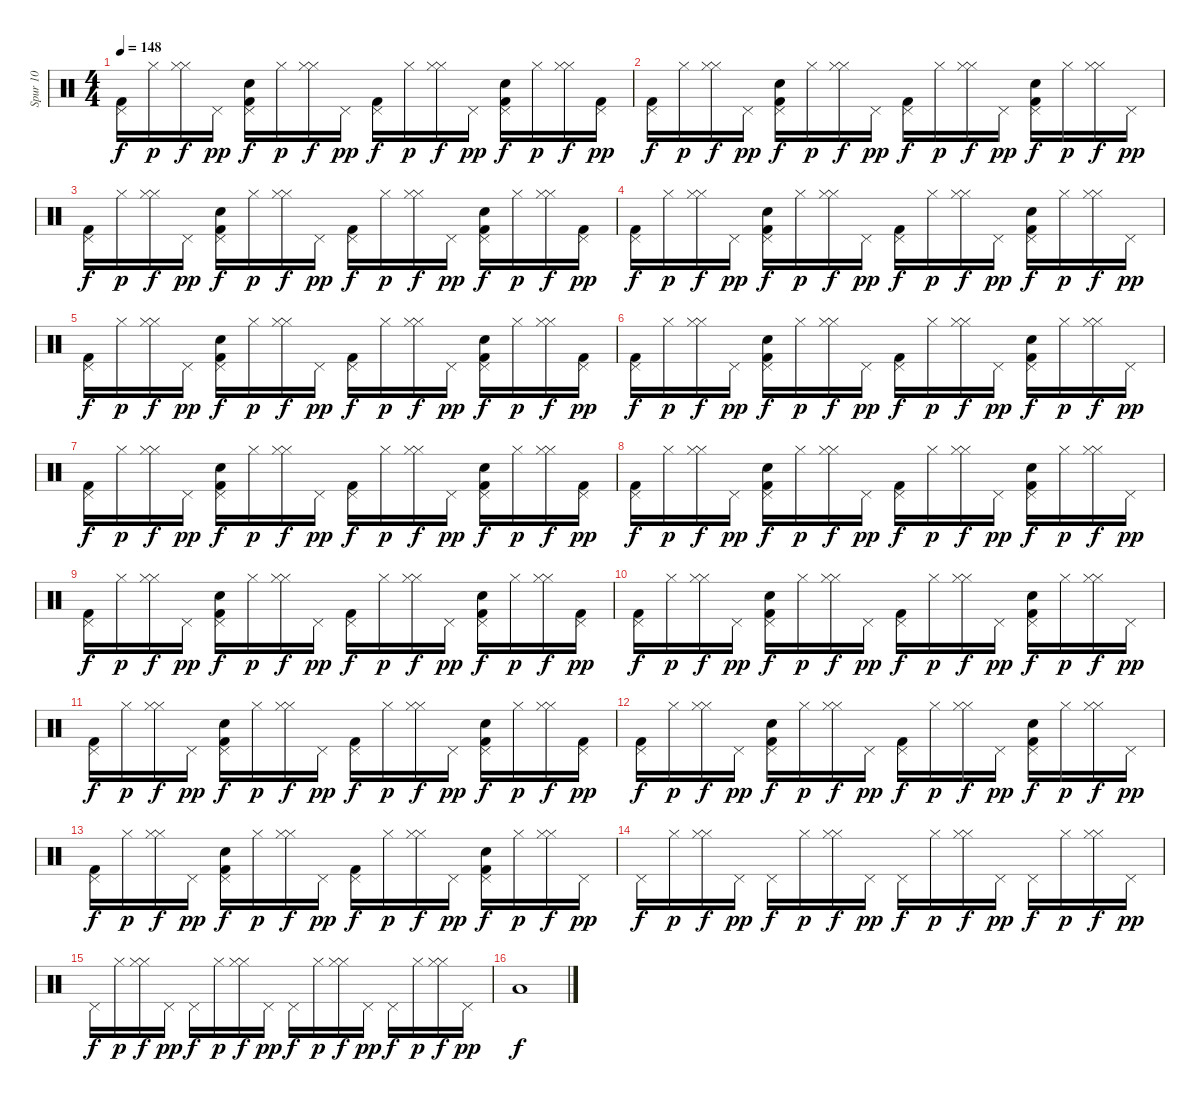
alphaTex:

\track ("Spur 10" "Spur 10") {instrument percussion}
\staff {score}
\articulation defaults
\ts (4 4)
\tempo 148
\clef neutral
\ks c
("Pedal Hi-Hat (hit)" "Kick (hit) 2").16{dy f} "Hi-Hat (closed)".16{dy p} ("Hi-Hat (closed)" "Hi-Hat (closed)").16{dy f} "Pedal Hi-Hat (hit)".16{dy pp} ("Pedal Hi-Hat (hit)" "Kick (hit) 2" "Snare (hit) 2").16{dy f} "Hi-Hat (closed)".16{dy p} ("Hi-Hat (closed)" "Hi-Hat (closed)").16{dy f} "Pedal Hi-Hat (hit)".16{dy pp} ("Pedal Hi-Hat (hit)" "Kick (hit) 2").16{dy f} "Hi-Hat (closed)".16{dy p} ("Hi-Hat (closed)" "Hi-Hat (closed)").16{dy f} "Pedal Hi-Hat (hit)".16{dy pp} ("Pedal Hi-Hat (hit)" "Snare (hit) 2" "Kick (hit) 2").16{dy f} "Hi-Hat (closed)".16{dy p} ("Hi-Hat (closed)" "Hi-Hat (closed)").16{dy f} ("Kick (hit) 2" "Pedal Hi-Hat (hit)").16{dy pp} |
("Pedal Hi-Hat (hit)" "Kick (hit) 2").16{dy f} "Hi-Hat (closed)".16{dy p} ("Hi-Hat (closed)" "Hi-Hat (closed)").16{dy f} "Pedal Hi-Hat (hit)".16{dy pp} ("Pedal Hi-Hat (hit)" "Snare (hit) 2" "Kick (hit) 2").16{dy f} "Hi-Hat (closed)".16{dy p} ("Hi-Hat (closed)" "Hi-Hat (closed)").16{dy f} "Pedal Hi-Hat (hit)".16{dy pp} ("Pedal Hi-Hat (hit)" "Kick (hit) 2").16{dy f} "Hi-Hat (closed)".16{dy p} ("Hi-Hat (closed)" "Hi-Hat (closed)").16{dy f} "Pedal Hi-Hat (hit)".16{dy pp} ("Pedal Hi-Hat (hit)" "Snare (hit) 2" "Kick (hit) 2").16{dy f} "Hi-Hat (closed)".16{dy p} ("Hi-Hat (closed)" "Hi-Hat (closed)").16{dy f} "Pedal Hi-Hat (hit)".16{dy pp} |
("Pedal Hi-Hat (hit)" "Kick (hit) 2").16{dy f} "Hi-Hat (closed)".16{dy p} ("Hi-Hat (closed)" "Hi-Hat (closed)").16{dy f} "Pedal Hi-Hat (hit)".16{dy pp} ("Pedal Hi-Hat (hit)" "Kick (hit) 2" "Snare (hit) 2").16{dy f} "Hi-Hat (closed)".16{dy p} ("Hi-Hat (closed)" "Hi-Hat (closed)").16{dy f} "Pedal Hi-Hat (hit)".16{dy pp} ("Pedal Hi-Hat (hit)" "Kick (hit) 2").16{dy f} "Hi-Hat (closed)".16{dy p} ("Hi-Hat (closed)" "Hi-Hat (closed)").16{dy f} "Pedal Hi-Hat (hit)".16{dy pp} ("Pedal Hi-Hat (hit)" "Kick (hit) 2" "Snare (hit) 2").16{dy f} "Hi-Hat (closed)".16{dy p} ("Hi-Hat (closed)" "Hi-Hat (closed)").16{dy f} ("Kick (hit) 2" "Pedal Hi-Hat (hit)").16{dy pp} |
("Pedal Hi-Hat (hit)" "Kick (hit) 2").16{dy f} "Hi-Hat (closed)".16{dy p} ("Hi-Hat (closed)" "Hi-Hat (closed)").16{dy f} "Pedal Hi-Hat (hit)".16{dy pp} ("Pedal Hi-Hat (hit)" "Kick (hit) 2" "Snare (hit) 2").16{dy f} "Hi-Hat (closed)".16{dy p} ("Hi-Hat (closed)" "Hi-Hat (closed)").16{dy f} "Pedal Hi-Hat (hit)".16{dy pp} ("Pedal Hi-Hat (hit)" "Kick (hit) 2").16{dy f} "Hi-Hat (closed)".16{dy p} ("Hi-Hat (closed)" "Hi-Hat (closed)").16{dy f} "Pedal Hi-Hat (hit)".16{dy pp} ("Pedal Hi-Hat (hit)" "Snare (hit) 2" "Kick (hit) 2").16{dy f} "Hi-Hat (closed)".16{dy p} ("Hi-Hat (closed)" "Hi-Hat (closed)").16{dy f} "Pedal Hi-Hat (hit)".16{dy pp} |
("Pedal Hi-Hat (hit)" "Kick (hit) 2").16{dy f} "Hi-Hat (closed)".16{dy p} ("Hi-Hat (closed)" "Hi-Hat (closed)").16{dy f} "Pedal Hi-Hat (hit)".16{dy pp} ("Pedal Hi-Hat (hit)" "Kick (hit) 2" "Snare (hit) 2").16{dy f} "Hi-Hat (closed)".16{dy p} ("Hi-Hat (closed)" "Hi-Hat (closed)").16{dy f} "Pedal Hi-Hat (hit)".16{dy pp} ("Pedal Hi-Hat (hit)" "Kick (hit) 2").16{dy f} "Hi-Hat (closed)".16{dy p} ("Hi-Hat (closed)" "Hi-Hat (closed)").16{dy f} "Pedal Hi-Hat (hit)".16{dy pp} ("Pedal Hi-Hat (hit)" "Kick (hit) 2" "Snare (hit) 2").16{dy f} "Hi-Hat (closed)".16{dy p} ("Hi-Hat (closed)" "Hi-Hat (closed)").16{dy f} ("Kick (hit) 2" "Pedal Hi-Hat (hit)").16{dy pp} |
("Pedal Hi-Hat (hit)" "Kick (hit) 2").16{dy f} "Hi-Hat (closed)".16{dy p} ("Hi-Hat (closed)" "Hi-Hat (closed)").16{dy f} "Pedal Hi-Hat (hit)".16{dy pp} ("Pedal Hi-Hat (hit)" "Kick (hit) 2" "Snare (hit) 2").16{dy f} "Hi-Hat (closed)".16{dy p} ("Hi-Hat (closed)" "Hi-Hat (closed)").16{dy f} "Pedal Hi-Hat (hit)".16{dy pp} ("Pedal Hi-Hat (hit)" "Kick (hit) 2").16{dy f} "Hi-Hat (closed)".16{dy p} ("Hi-Hat (closed)" "Hi-Hat (closed)").16{dy f} "Pedal Hi-Hat (hit)".16{dy pp} ("Pedal Hi-Hat (hit)" "Snare (hit) 2" "Kick (hit) 2").16{dy f} "Hi-Hat (closed)".16{dy p} ("Hi-Hat (closed)" "Hi-Hat (closed)").16{dy f} "Pedal Hi-Hat (hit)".16{dy pp} |
("Pedal Hi-Hat (hit)" "Kick (hit) 2").16{dy f} "Hi-Hat (closed)".16{dy p} ("Hi-Hat (closed)" "Hi-Hat (closed)").16{dy f} "Pedal Hi-Hat (hit)".16{dy pp} ("Pedal Hi-Hat (hit)" "Snare (hit) 2" "Kick (hit) 2").16{dy f} "Hi-Hat (closed)".16{dy p} ("Hi-Hat (closed)" "Hi-Hat (closed)").16{dy f} "Pedal Hi-Hat (hit)".16{dy pp} ("Pedal Hi-Hat (hit)" "Kick (hit) 2").16{dy f} "Hi-Hat (closed)".16{dy p} ("Hi-Hat (closed)" "Hi-Hat (closed)").16{dy f} "Pedal Hi-Hat (hit)".16{dy pp} ("Pedal Hi-Hat (hit)" "Kick (hit) 2" "Snare (hit) 2").16{dy f} "Hi-Hat (closed)".16{dy p} ("Hi-Hat (closed)" "Hi-Hat (closed)").16{dy f} ("Kick (hit) 2" "Pedal Hi-Hat (hit)").16{dy pp} |
("Pedal Hi-Hat (hit)" "Kick (hit) 2").16{dy f} "Hi-Hat (closed)".16{dy p} ("Hi-Hat (closed)" "Hi-Hat (closed)").16{dy f} "Pedal Hi-Hat (hit)".16{dy pp} ("Pedal Hi-Hat (hit)" "Snare (hit) 2" "Kick (hit) 2").16{dy f} "Hi-Hat (closed)".16{dy p} ("Hi-Hat (closed)" "Hi-Hat (closed)").16{dy f} "Pedal Hi-Hat (hit)".16{dy pp} ("Pedal Hi-Hat (hit)" "Kick (hit) 2").16{dy f} "Hi-Hat (closed)".16{dy p} ("Hi-Hat (closed)" "Hi-Hat (closed)").16{dy f} "Pedal Hi-Hat (hit)".16{dy pp} ("Pedal Hi-Hat (hit)" "Kick (hit) 2" "Snare (hit) 2").16{dy f} "Hi-Hat (closed)".16{dy p} ("Hi-Hat (closed)" "Hi-Hat (closed)").16{dy f} "Pedal Hi-Hat (hit)".16{dy pp} |
("Pedal Hi-Hat (hit)" "Kick (hit) 2").16{dy f} "Hi-Hat (closed)".16{dy p} ("Hi-Hat (closed)" "Hi-Hat (closed)").16{dy f} "Pedal Hi-Hat (hit)".16{dy pp} ("Pedal Hi-Hat (hit)" "Snare (hit) 2" "Kick (hit) 2").16{dy f} "Hi-Hat (closed)".16{dy p} ("Hi-Hat (closed)" "Hi-Hat (closed)").16{dy f} "Pedal Hi-Hat (hit)".16{dy pp} ("Pedal Hi-Hat (hit)" "Kick (hit) 2").16{dy f} "Hi-Hat (closed)".16{dy p} ("Hi-Hat (closed)" "Hi-Hat (closed)").16{dy f} "Pedal Hi-Hat (hit)".16{dy pp} ("Pedal Hi-Hat (hit)" "Kick (hit) 2" "Snare (hit) 2").16{dy f} "Hi-Hat (closed)".16{dy p} ("Hi-Hat (closed)" "Hi-Hat (closed)").16{dy f} ("Kick (hit) 2" "Pedal Hi-Hat (hit)").16{dy pp} |
("Pedal Hi-Hat (hit)" "Kick (hit) 2").16{dy f} "Hi-Hat (closed)".16{dy p} ("Hi-Hat (closed)" "Hi-Hat (closed)").16{dy f} "Pedal Hi-Hat (hit)".16{dy pp} ("Pedal Hi-Hat (hit)" "Snare (hit) 2" "Kick (hit) 2").16{dy f} "Hi-Hat (closed)".16{dy p} ("Hi-Hat (closed)" "Hi-Hat (closed)").16{dy f} "Pedal Hi-Hat (hit)".16{dy pp} ("Pedal Hi-Hat (hit)" "Kick (hit) 2").16{dy f} "Hi-Hat (closed)".16{dy p} ("Hi-Hat (closed)" "Hi-Hat (closed)").16{dy f} "Pedal Hi-Hat (hit)".16{dy pp} ("Pedal Hi-Hat (hit)" "Snare (hit) 2" "Kick (hit) 2").16{dy f} "Hi-Hat (closed)".16{dy p} ("Hi-Hat (closed)" "Hi-Hat (closed)").16{dy f} "Pedal Hi-Hat (hit)".16{dy pp} |
("Pedal Hi-Hat (hit)" "Kick (hit) 2").16{dy f} "Hi-Hat (closed)".16{dy p} ("Hi-Hat (closed)" "Hi-Hat (closed)").16{dy f} "Pedal Hi-Hat (hit)".16{dy pp} ("Pedal Hi-Hat (hit)" "Snare (hit) 2" "Kick (hit) 2").16{dy f} "Hi-Hat (closed)".16{dy p} ("Hi-Hat (closed)" "Hi-Hat (closed)").16{dy f} "Pedal Hi-Hat (hit)".16{dy pp} ("Pedal Hi-Hat (hit)" "Kick (hit) 2").16{dy f} "Hi-Hat (closed)".16{dy p} ("Hi-Hat (closed)" "Hi-Hat (closed)").16{dy f} "Pedal Hi-Hat (hit)".16{dy pp} ("Pedal Hi-Hat (hit)" "Snare (hit) 2" "Kick (hit) 2").16{dy f} "Hi-Hat (closed)".16{dy p} ("Hi-Hat (closed)" "Hi-Hat (closed)").16{dy f} ("Kick (hit) 2" "Pedal Hi-Hat (hit)").16{dy pp} |
("Pedal Hi-Hat (hit)" "Kick (hit) 2").16{dy f} "Hi-Hat (closed)".16{dy p} ("Hi-Hat (closed)" "Hi-Hat (closed)").16{dy f} "Pedal Hi-Hat (hit)".16{dy pp} ("Pedal Hi-Hat (hit)" "Kick (hit) 2" "Snare (hit) 2").16{dy f} "Hi-Hat (closed)".16{dy p} ("Hi-Hat (closed)" "Hi-Hat (closed)").16{dy f} "Pedal Hi-Hat (hit)".16{dy pp} ("Pedal Hi-Hat (hit)" "Kick (hit) 2").16{dy f} "Hi-Hat (closed)".16{dy p} ("Hi-Hat (closed)" "Hi-Hat (closed)").16{dy f} "Pedal Hi-Hat (hit)".16{dy pp} ("Pedal Hi-Hat (hit)" "Kick (hit) 2" "Snare (hit) 2").16{dy f} "Hi-Hat (closed)".16{dy p} ("Hi-Hat (closed)" "Hi-Hat (closed)").16{dy f} "Pedal Hi-Hat (hit)".16{dy pp} |
("Pedal Hi-Hat (hit)" "Kick (hit) 2").16{dy f} "Hi-Hat (closed)".16{dy p} ("Hi-Hat (closed)" "Hi-Hat (closed)").16{dy f} "Pedal Hi-Hat (hit)".16{dy pp} ("Pedal Hi-Hat (hit)" "Snare (hit) 2" "Kick (hit) 2").16{dy f} "Hi-Hat (closed)".16{dy p} ("Hi-Hat (closed)" "Hi-Hat (closed)").16{dy f} "Pedal Hi-Hat (hit)".16{dy pp} ("Pedal Hi-Hat (hit)" "Kick (hit) 2").16{dy f} "Hi-Hat (closed)".16{dy p} ("Hi-Hat (closed)" "Hi-Hat (closed)").16{dy f} "Pedal Hi-Hat (hit)".16{dy pp} ("Pedal Hi-Hat (hit)" "Snare (hit) 2" "Kick (hit) 2").16{dy f} "Hi-Hat (closed)".16{dy p} ("Hi-Hat (closed)" "Hi-Hat (closed)").16{dy f} "Pedal Hi-Hat (hit)".16{dy pp} |
"Pedal Hi-Hat (hit)".16{dy f} "Hi-Hat (closed)".16{dy p} ("Hi-Hat (closed)" "Hi-Hat (closed)").16{dy f} "Pedal Hi-Hat (hit)".16{dy pp} "Pedal Hi-Hat (hit)".16{dy f} "Hi-Hat (closed)".16{dy p} ("Hi-Hat (closed)" "Hi-Hat (closed)").16{dy f} "Pedal Hi-Hat (hit)".16{dy pp} "Pedal Hi-Hat (hit)".16{dy f} "Hi-Hat (closed)".16{dy p} ("Hi-Hat (closed)" "Hi-Hat (closed)").16{dy f} "Pedal Hi-Hat (hit)".16{dy pp} "Pedal Hi-Hat (hit)".16{dy f} "Hi-Hat (closed)".16{dy p} ("Hi-Hat (closed)" "Hi-Hat (closed)").16{dy f} "Pedal Hi-Hat (hit)".16{dy pp} |
"Pedal Hi-Hat (hit)".16{dy f} "Hi-Hat (closed)".16{dy p} ("Hi-Hat (closed)" "Hi-Hat (closed)").16{dy f} "Pedal Hi-Hat (hit)".16{dy pp} "Pedal Hi-Hat (hit)".16{dy f} "Hi-Hat (closed)".16{dy p} ("Hi-Hat (closed)" "Hi-Hat (closed)").16{dy f} "Pedal Hi-Hat (hit)".16{dy pp} "Pedal Hi-Hat (hit)".16{dy f} "Hi-Hat (closed)".16{dy p} ("Hi-Hat (closed)" "Hi-Hat (closed)").16{dy f} "Pedal Hi-Hat (hit)".16{dy pp} "Pedal Hi-Hat (hit)".16{dy f} "Hi-Hat (closed)".16{dy p} ("Hi-Hat (closed)" "Hi-Hat (closed)").16{dy f} "Pedal Hi-Hat (hit)".16{dy pp} |
"Low Tom (hit)".1{dy f}
